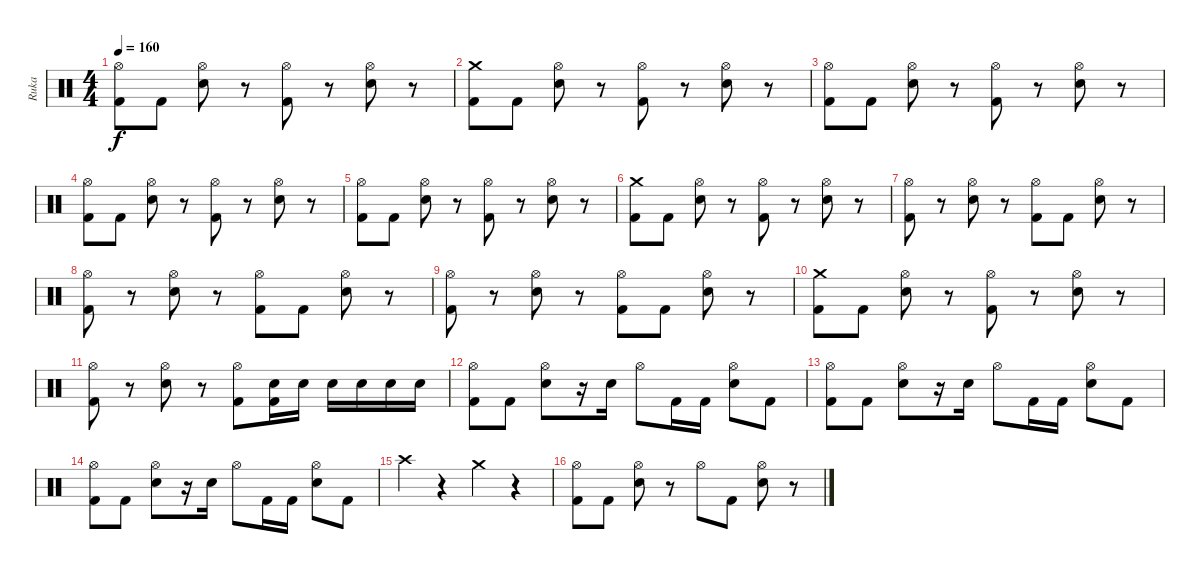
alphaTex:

\track ("Ruka" "Ruka") {instrument percussion}
\staff {score}
\articulation defaults
\ts (4 4)
\tempo 160
\clef neutral
\ks c
("Kick (hit) 2" "Hi-Hat (open)").8{dy f} "Kick (hit) 2".8 ("Electric Snare (hit)" "Hi-Hat (open)").8 r.8 ("Kick (hit) 2" "Hi-Hat (open)").8 r.8 ("Electric Snare (hit)" "Hi-Hat (open)").8 r.8 |
("Kick (hit) 2" "Crash medium (hit)").8 "Kick (hit) 2".8 ("Electric Snare (hit)" "Hi-Hat (open)").8 r.8 ("Kick (hit) 2" "Hi-Hat (open)").8 r.8 ("Electric Snare (hit)" "Hi-Hat (open)").8 r.8 |
("Kick (hit) 2" "Hi-Hat (open)").8 "Kick (hit) 2".8 ("Electric Snare (hit)" "Hi-Hat (open)").8 r.8 ("Kick (hit) 2" "Hi-Hat (open)").8 r.8 ("Electric Snare (hit)" "Hi-Hat (open)").8 r.8 |
("Kick (hit) 2" "Hi-Hat (open)").8 "Kick (hit) 2".8 ("Electric Snare (hit)" "Hi-Hat (open)").8 r.8 ("Kick (hit) 2" "Hi-Hat (open)").8 r.8 ("Electric Snare (hit)" "Hi-Hat (open)").8 r.8 |
("Kick (hit) 2" "Hi-Hat (open)").8 "Kick (hit) 2".8 ("Electric Snare (hit)" "Hi-Hat (open)").8 r.8 ("Kick (hit) 2" "Hi-Hat (open)").8 r.8 ("Electric Snare (hit)" "Hi-Hat (open)").8 r.8 |
("Kick (hit) 2" "Crash medium (hit)").8 "Kick (hit) 2".8 ("Electric Snare (hit)" "Hi-Hat (open)").8 r.8 ("Kick (hit) 2" "Hi-Hat (open)").8 r.8 ("Electric Snare (hit)" "Hi-Hat (open)").8 r.8 |
("Kick (hit) 2" "Hi-Hat (open)").8 r.8 ("Electric Snare (hit)" "Hi-Hat (open)").8 r.8 ("Kick (hit) 2" "Hi-Hat (open)").8 "Kick (hit) 2".8 ("Electric Snare (hit)" "Hi-Hat (open)").8 r.8 |
("Kick (hit) 2" "Hi-Hat (open)").8 r.8 ("Electric Snare (hit)" "Hi-Hat (open)").8 r.8 ("Kick (hit) 2" "Hi-Hat (open)").8 "Kick (hit) 2".8 ("Electric Snare (hit)" "Hi-Hat (open)").8 r.8 |
("Kick (hit) 2" "Hi-Hat (open)").8 r.8 ("Electric Snare (hit)" "Hi-Hat (open)").8 r.8 ("Kick (hit) 2" "Hi-Hat (open)").8 "Kick (hit) 2".8 ("Electric Snare (hit)" "Hi-Hat (open)").8 r.8 |
("Kick (hit) 2" "Crash medium (hit)").8 "Kick (hit) 2".8 ("Electric Snare (hit)" "Hi-Hat (open)").8 r.8 ("Kick (hit) 2" "Hi-Hat (open)").8 r.8 ("Electric Snare (hit)" "Hi-Hat (open)").8 r.8 |
("Kick (hit) 2" "Hi-Hat (open)").8 r.8 ("Electric Snare (hit)" "Hi-Hat (open)").8 r.8 ("Kick (hit) 2" "Hi-Hat (open)").8 ("Kick (hit) 2" "Electric Snare (hit)").16 "Electric Snare (hit)".16 "Electric Snare (hit)".16 "Electric Snare (hit)".16 "Electric Snare (hit)".16 "Electric Snare (hit)".16 |
("Kick (hit) 2" "Hi-Hat (open)").8 "Kick (hit) 2".8 ("Electric Snare (hit)" "Hi-Hat (open)").8 r.16 "Electric Snare (hit)".16 "Hi-Hat (open)".8 "Kick (hit) 2".16 "Kick (hit) 2".16 ("Electric Snare (hit)" "Hi-Hat (open)").8 "Kick (hit) 2".8 |
("Kick (hit) 2" "Hi-Hat (open)").8 "Kick (hit) 2".8 ("Electric Snare (hit)" "Hi-Hat (open)").8 r.16 "Electric Snare (hit)".16 "Hi-Hat (open)".8 "Kick (hit) 2".16 "Kick (hit) 2".16 ("Electric Snare (hit)" "Hi-Hat (open)").8 "Kick (hit) 2".8 |
("Kick (hit) 2" "Hi-Hat (open)").8 "Kick (hit) 2".8 ("Electric Snare (hit)" "Hi-Hat (open)").8 r.16 "Electric Snare (hit)".16 "Hi-Hat (open)".8 "Kick (hit) 2".16 "Kick (hit) 2".16 ("Electric Snare (hit)" "Hi-Hat (open)").8 "Kick (hit) 2".8 |
"Crash high (hit)".4 r.4 "Crash medium (hit)".4 r.4 |
("Kick (hit) 2" "Hi-Hat (open)").8 "Kick (hit) 2".8 ("Electric Snare (hit)" "Hi-Hat (open)").8 r.8 "Hi-Hat (open)".8 "Kick (hit) 2".8 ("Electric Snare (hit)" "Hi-Hat (open)").8 r.8
